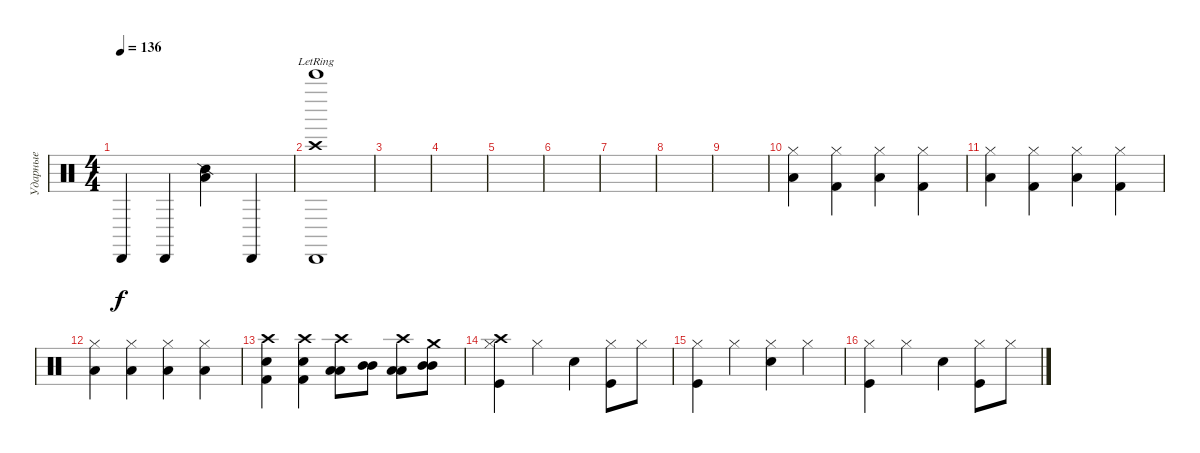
\track ("Ударные" "Ударные") {instrument percussion}
\staff {score}
\articulation defaults
\ts (4 4)
\tempo 136
\clef neutral
\ks c "Cabasa (hit)".4{dy f} "Cabasa (hit)".4
("Snare (side stick) 2" "Low Tom (hit)").4 "Cabasa (hit)".4 |
("Crash high (hit)" "Bell Tree (hit)"{lr} "Cabasa (hit)").1 |
|
|
|
|
|
|
|
("Low Tom (hit)" "Hi-Hat (closed)").4 ("Kick (hit) 2" "Hi-Hat (closed)").4 ("Low Tom (hit)" "Hi-Hat (closed)").4 ("Kick (hit) 2" "Hi-Hat (closed)").4 |
("Low Tom (hit)" "Hi-Hat (closed)").4 ("Kick (hit) 2" "Hi-Hat (closed)").4 ("Low Tom (hit)" "Hi-Hat (closed)").4 ("Kick (hit) 2" "Hi-Hat (closed)").4 |
("Hi-Hat (closed)" "Low Tom (hit)").4 ("Hi-Hat (closed)" "Low Tom (hit)").4 ("Hi-Hat (closed)" "Low Tom (hit)").4 ("Hi-Hat (closed)" "Low Tom (hit)").4 |
("Crash high (hit)" "Kick (hit) 2" "Electric Snare (hit)").4 ("Crash high (hit)" "Kick (hit) 2" "Electric Snare (hit)").4 ("Crash high (hit)" "Low Tom (hit)" "Low Tom (hit)").8 ("Mid Tom (hit)" "Mid Tom (hit)").8 ("Crash high (hit)" "Low Tom (hit)" "Low Tom (hit)").8 ("Crash medium (hit)" "Mid Tom (hit)" "Mid Tom (hit)").8 |
("Crash high (hit)" "Kick (hit)" "Hi-Hat (closed)").4 "Hi-Hat (closed)".4 "Electric Snare (hit)".4 ("Hi-Hat (closed)" "Kick (hit)").8 "Hi-Hat (closed)".8 |
("Hi-Hat (closed)" "Kick (hit)").4 "Hi-Hat (closed)".4 ("Hi-Hat (closed)" "Electric Snare (hit)").4 "Hi-Hat (closed)".4 |
("Kick (hit)" "Hi-Hat (closed)").4 "Hi-Hat (closed)".4 "Electric Snare (hit)".4 ("Hi-Hat (closed)" "Kick (hit)").8 "Hi-Hat (closed)".8
